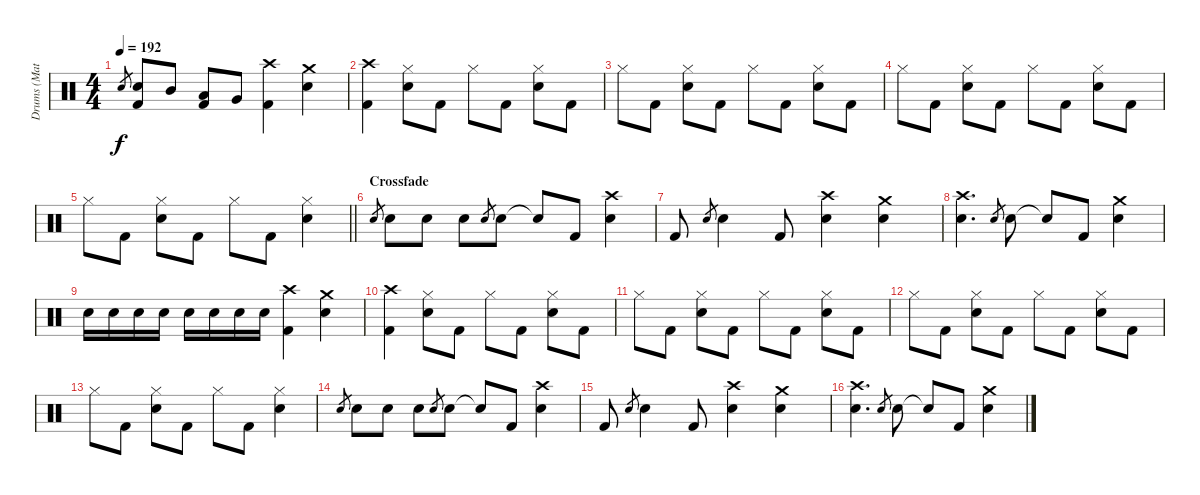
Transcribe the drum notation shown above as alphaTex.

\track ("Drums (Matt)" "Drums (Mat") {instrument percussion}
\staff {score}
\articulation defaults
\ts (4 4)
\tempo 192
\clef neutral
\ks c "Snare (hit) 2".8{gr dy f}
("Snare (hit) 2" "Kick (hit) 2").8 "Mid Tom (hit)".8 ("Low Tom (hit)" "Kick (hit) 2").8 "Very Low Tom (hit)".8 ("Crash high (hit)" "Kick (hit) 2").4 ("Crash medium (hit)" "Snare (hit) 2").4 |
("Crash high (hit)" "Kick (hit) 2").4 ("Hi-Hat (closed)" "Snare (hit) 2").8 "Kick (hit) 2".8 "Hi-Hat (closed)".8 "Kick (hit) 2".8 ("Hi-Hat (closed)" "Snare (hit) 2").8 "Kick (hit) 2".8 |
"Hi-Hat (closed)".8 "Kick (hit) 2".8 ("Hi-Hat (closed)" "Snare (hit) 2").8 "Kick (hit) 2".8 "Hi-Hat (closed)".8 "Kick (hit) 2".8 ("Hi-Hat (closed)" "Snare (hit) 2").8 "Kick (hit) 2".8 |
"Hi-Hat (closed)".8 "Kick (hit) 2".8 ("Hi-Hat (closed)" "Snare (hit) 2").8 "Kick (hit) 2".8 "Hi-Hat (closed)".8 "Kick (hit) 2".8 ("Hi-Hat (closed)" "Snare (hit) 2").8 "Kick (hit) 2".8 |
\barLineRight lightlight "Hi-Hat (closed)".8 "Kick (hit) 2".8
("Hi-Hat (closed)" "Snare (hit) 2").8 "Kick (hit) 2".8 "Hi-Hat (closed)".8 "Kick (hit) 2".8 ("Hi-Hat (closed)" "Snare (hit) 2").4 |
\section ("" "Crossfade")
"Snare (hit) 2".8{gr} "Snare (hit) 2".8{volume 11} "Snare (hit) 2".8 "Snare (hit) 2".8 "Snare (hit) 2".8{gr} "Snare (hit) 2".8 "Snare (hit)"{t}.8 "Kick (hit) 2".8 ("Crash high (hit)" "Snare (hit) 2").4 |
"Kick (hit) 2".8 "Snare (hit) 2".8{gr} "Snare (hit) 2".4 "Kick (hit) 2".8 ("Crash high (hit)" "Snare (hit) 2").4 ("Crash medium (hit)" "Snare (hit) 2").4 |
("Crash high (hit)" "Snare (hit) 2").4{d} "Snare (hit) 2".8{gr} "Snare (hit) 2".8 "Snare (hit)"{t}.8 "Kick (hit) 2".8 ("Crash medium (hit)" "Snare (hit) 2").4 |
"Snare (hit) 2".16 "Snare (hit) 2".16 "Snare (hit) 2".16 "Snare (hit) 2".16 "Snare (hit) 2".16 "Snare (hit) 2".16 "Snare (hit) 2".16 "Snare (hit) 2".16 ("Crash high (hit)" "Kick (hit) 2").4 ("Crash medium (hit)" "Snare (hit) 2").4 |
("Crash high (hit)" "Kick (hit) 2").4{volume 7} ("Hi-Hat (closed)" "Snare (hit) 2").8 "Kick (hit) 2".8 "Hi-Hat (closed)".8 "Kick (hit) 2".8 ("Hi-Hat (closed)" "Snare (hit) 2").8 "Kick (hit) 2".8 |
"Hi-Hat (closed)".8 "Kick (hit) 2".8 ("Hi-Hat (closed)" "Snare (hit) 2").8 "Kick (hit) 2".8 "Hi-Hat (closed)".8 "Kick (hit) 2".8 ("Hi-Hat (closed)" "Snare (hit) 2").8 "Kick (hit) 2".8 |
"Hi-Hat (closed)".8 "Kick (hit) 2".8 ("Hi-Hat (closed)" "Snare (hit) 2").8 "Kick (hit) 2".8 "Hi-Hat (closed)".8 "Kick (hit) 2".8 ("Hi-Hat (closed)" "Snare (hit) 2").8 "Kick (hit) 2".8 |
"Hi-Hat (closed)".8 "Kick (hit) 2".8 ("Hi-Hat (closed)" "Snare (hit) 2").8 "Kick (hit) 2".8 "Hi-Hat (closed)".8 "Kick (hit) 2".8 ("Hi-Hat (closed)" "Snare (hit) 2").4 |
"Snare (hit) 2".8{gr} "Snare (hit) 2".8{volume 5} "Snare (hit) 2".8 "Snare (hit) 2".8 "Snare (hit) 2".8{gr} "Snare (hit) 2".8 "Snare (hit)"{t}.8 "Kick (hit) 2".8 ("Crash high (hit)" "Snare (hit) 2").4 |
"Kick (hit) 2".8 "Snare (hit) 2".8{gr} "Snare (hit) 2".4 "Kick (hit) 2".8 ("Crash high (hit)" "Snare (hit) 2").4 ("Crash medium (hit)" "Snare (hit) 2").4 |
("Crash high (hit)" "Snare (hit) 2").4{d} "Snare (hit) 2".8{gr} "Snare (hit) 2".8 "Snare (hit)"{t}.8 "Kick (hit) 2".8 ("Crash medium (hit)" "Snare (hit) 2").4
